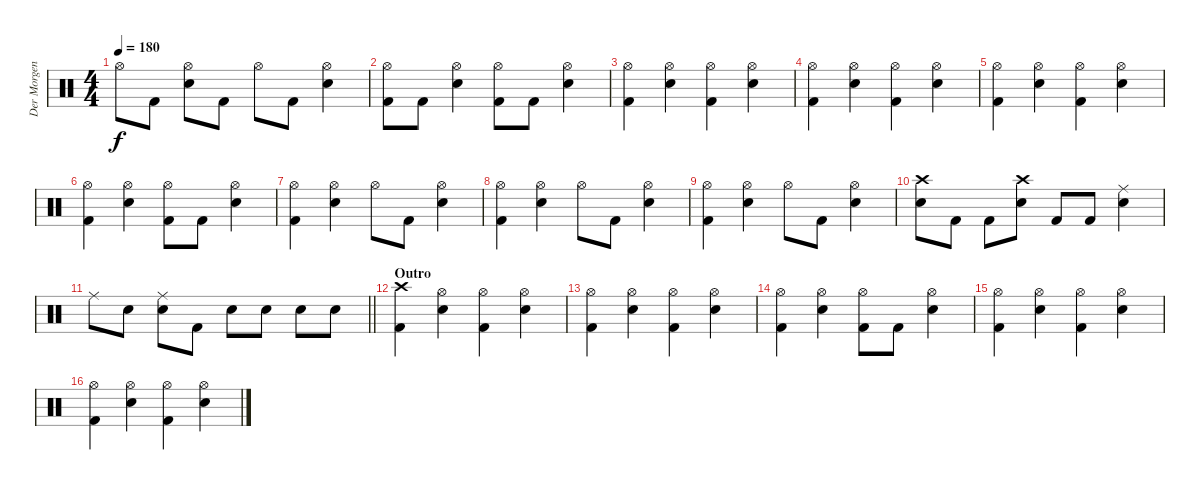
\track ("Der Morgenstern" "Der Morgen") {instrument percussion}
\staff {score}
\articulation defaults
\ts (4 4)
\tempo 180
\clef neutral
\ks c "Hi-Hat (open)".8{dy f} "Kick (hit) 2".8
("Hi-Hat (open)" "Electric Snare (hit)").8 "Kick (hit) 2".8 "Hi-Hat (open)".8 "Kick (hit) 2".8 ("Hi-Hat (open)" "Electric Snare (hit)").4 |
("Hi-Hat (open)" "Kick (hit) 2").8 "Kick (hit) 2".8 ("Hi-Hat (open)" "Electric Snare (hit)").4 ("Hi-Hat (open)" "Kick (hit) 2").8 "Kick (hit) 2".8 ("Hi-Hat (open)" "Electric Snare (hit)").4 |
("Hi-Hat (open)" "Kick (hit) 2").4 ("Hi-Hat (open)" "Electric Snare (hit)").4 ("Hi-Hat (open)" "Kick (hit) 2").4 ("Hi-Hat (open)" "Electric Snare (hit)").4 |
("Hi-Hat (open)" "Kick (hit) 2").4 ("Hi-Hat (open)" "Electric Snare (hit)").4 ("Hi-Hat (open)" "Kick (hit) 2").4 ("Hi-Hat (open)" "Electric Snare (hit)").4 |
("Hi-Hat (open)" "Kick (hit) 2").4 ("Hi-Hat (open)" "Electric Snare (hit)").4 ("Hi-Hat (open)" "Kick (hit) 2").4 ("Hi-Hat (open)" "Electric Snare (hit)").4 |
("Hi-Hat (open)" "Kick (hit) 2").4 ("Hi-Hat (open)" "Electric Snare (hit)").4 ("Hi-Hat (open)" "Kick (hit) 2").8 "Kick (hit) 2".8 ("Hi-Hat (open)" "Electric Snare (hit)").4 |
("Hi-Hat (open)" "Kick (hit) 2").4 ("Hi-Hat (open)" "Electric Snare (hit)").4 "Hi-Hat (open)".8 "Kick (hit) 2".8 ("Hi-Hat (open)" "Electric Snare (hit)").4 |
("Hi-Hat (open)" "Kick (hit) 2").4 ("Hi-Hat (open)" "Electric Snare (hit)").4 "Hi-Hat (open)".8 "Kick (hit) 2".8 ("Hi-Hat (open)" "Electric Snare (hit)").4 |
("Hi-Hat (open)" "Kick (hit) 2").4 ("Hi-Hat (open)" "Electric Snare (hit)").4 "Hi-Hat (open)".8 "Kick (hit) 2".8 ("Hi-Hat (open)" "Electric Snare (hit)").4 |
("Crash high (hit)" "Electric Snare (hit)").8 "Kick (hit) 2".8 "Kick (hit) 2".8 ("Crash high (hit)" "Electric Snare (hit)").8 "Kick (hit) 2".8 "Kick (hit) 2".8 ("Ride (middle)" "Electric Snare (hit)").4 |
\barLineRight lightlight "Ride (middle)".8 "Electric Snare (hit)".8
("Ride (middle)" "Electric Snare (hit)").8 "Kick (hit) 2".8 "Electric Snare (hit)".8 "Electric Snare (hit)".8 "Electric Snare (hit)".8 "Electric Snare (hit)".8 |
\section ("" "Outro")
("Crash high (hit)" "Kick (hit) 2").4 ("Hi-Hat (open)" "Electric Snare (hit)").4 ("Hi-Hat (open)" "Kick (hit) 2").4 ("Hi-Hat (open)" "Electric Snare (hit)").4 |
("Hi-Hat (open)" "Kick (hit) 2").4 ("Hi-Hat (open)" "Electric Snare (hit)").4 ("Hi-Hat (open)" "Kick (hit) 2").4 ("Hi-Hat (open)" "Electric Snare (hit)").4 |
("Hi-Hat (open)" "Kick (hit) 2").4 ("Hi-Hat (open)" "Electric Snare (hit)").4 ("Hi-Hat (open)" "Kick (hit) 2").8 "Kick (hit) 2".8 ("Hi-Hat (open)" "Electric Snare (hit)").4 |
("Hi-Hat (open)" "Kick (hit) 2").4 ("Hi-Hat (open)" "Electric Snare (hit)").4 ("Hi-Hat (open)" "Kick (hit) 2").4 ("Hi-Hat (open)" "Electric Snare (hit)").4 |
("Hi-Hat (open)" "Kick (hit) 2").4 ("Hi-Hat (open)" "Electric Snare (hit)").4 ("Hi-Hat (open)" "Kick (hit) 2").4 ("Hi-Hat (open)" "Electric Snare (hit)").4
